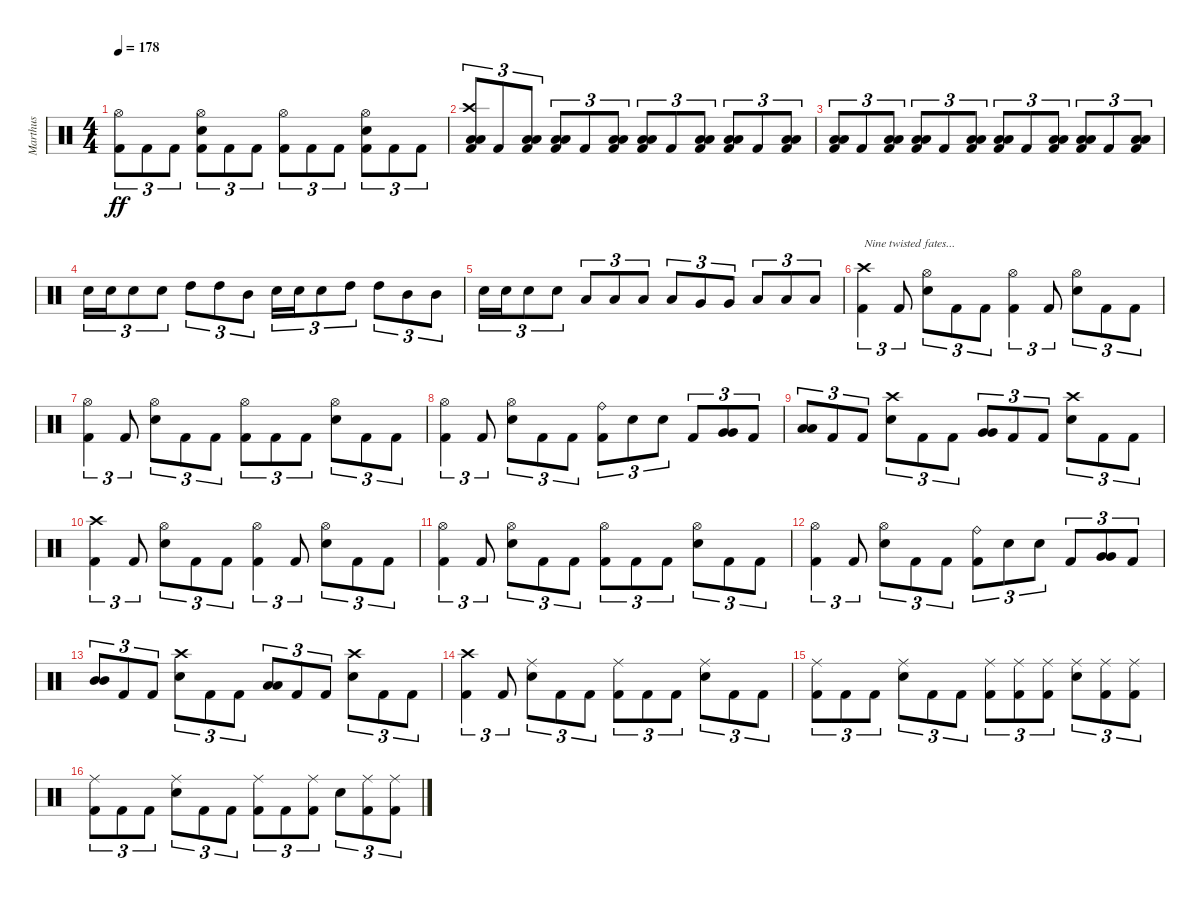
\track ("Marthus" "Marthus") {instrument percussion}
\staff {score}
\articulation defaults
\ts (4 4)
\tempo 178
\clef neutral
\ks c
("Hi-Hat (open)" "Kick (hit) 2").8{tu (3 2) dy ff} "Kick (hit) 2".8{tu (3 2)} "Kick (hit) 2".8{tu (3 2)} ("Hi-Hat (open)" "Electric Snare (hit)" "Kick (hit) 2").8{tu (3 2)} "Kick (hit) 2".8{tu (3 2)} "Kick (hit) 2".8{tu (3 2)} ("Hi-Hat (open)" "Kick (hit) 2").8{tu (3 2)} "Kick (hit) 2".8{tu (3 2)} "Kick (hit) 2".8{tu (3 2)} ("Hi-Hat (open)" "Electric Snare (hit)" "Kick (hit) 2").8{tu (3 2)} "Kick (hit) 2".8{tu (3 2)} "Kick (hit) 2".8{tu (3 2)} |
("Crash high (hit)" "Low Tom (hit)" "Low Tom (hit)" "Kick (hit) 2").8{tu (3 2)} "Kick (hit) 2".8{tu (3 2)} ("Low Floor Tom (hit)" "Low Floor Tom (hit)" "Kick (hit) 2").8{tu (3 2)} ("Low Floor Tom (hit)" "Low Floor Tom (hit)" "Kick (hit) 2").8{tu (3 2)} "Kick (hit) 2".8{tu (3 2)} ("Low Tom (hit)" "Low Tom (hit)" "Kick (hit) 2").8{tu (3 2)} ("Low Tom (hit)" "Low Tom (hit)" "Kick (hit) 2").8{tu (3 2)} "Kick (hit) 2".8{tu (3 2)} ("Low Floor Tom (hit)" "Low Floor Tom (hit)" "Kick (hit) 2").8{tu (3 2)} ("Low Floor Tom (hit)" "Low Floor Tom (hit)" "Kick (hit) 2").8{tu (3 2)} "Kick (hit) 2".8{tu (3 2)} ("Low Tom (hit)" "Low Tom (hit)" "Kick (hit) 2").8{tu (3 2)} |
("Low Tom (hit)" "Low Tom (hit)" "Kick (hit) 2").8{tu (3 2)} "Kick (hit) 2".8{tu (3 2)} ("Low Floor Tom (hit)" "Low Floor Tom (hit)" "Kick (hit) 2").8{tu (3 2)} ("Low Floor Tom (hit)" "Low Floor Tom (hit)" "Kick (hit) 2").8{tu (3 2)} "Kick (hit) 2".8{tu (3 2)} ("Low Tom (hit)" "Low Tom (hit)" "Kick (hit) 2").8{tu (3 2)} ("Low Tom (hit)" "Low Tom (hit)" "Kick (hit) 2").8{tu (3 2)} "Kick (hit) 2".8{tu (3 2)} ("Low Floor Tom (hit)" "Low Floor Tom (hit)" "Kick (hit) 2").8{tu (3 2)} ("Low Floor Tom (hit)" "Low Floor Tom (hit)" "Kick (hit) 2").8{tu (3 2)} "Kick (hit) 2".8{tu (3 2)} ("Low Tom (hit)" "Low Tom (hit)" "Kick (hit) 2").8{tu (3 2)} |
"Electric Snare (hit)".16{tu (3 2)} "Electric Snare (hit)".16{tu (3 2)} "Electric Snare (hit)".8{tu (3 2)} "Electric Snare (hit)".8{tu (3 2)} "High Tom (hit)".8{tu (3 2)} "High Tom (hit)".8{tu (3 2)} "Mid Tom (hit)".8{tu (3 2)} "Electric Snare (hit)".16{tu (3 2)} "Electric Snare (hit)".16{tu (3 2)} "Electric Snare (hit)".8{tu (3 2)} "High Tom (hit)".8{tu (3 2)} "High Tom (hit)".8{tu (3 2)} "Mid Tom (hit)".8{tu (3 2)} "Mid Tom (hit)".8{tu (3 2)} |
"Electric Snare (hit)".16{tu (3 2)} "Electric Snare (hit)".16{tu (3 2)} "Electric Snare (hit)".8{tu (3 2)} "Electric Snare (hit)".8{tu (3 2)} "Low Tom (hit)".8{tu (3 2)} "Low Tom (hit)".8{tu (3 2)} "Low Tom (hit)".8{tu (3 2)} "Low Tom (hit)".8{tu (3 2)} "Very Low Tom (hit)".8{tu (3 2)} "Very Low Tom (hit)".8{tu (3 2)} "Low Floor Tom (hit)".8{tu (3 2)} "Low Floor Tom (hit)".8{tu (3 2)} "Low Floor Tom (hit)".8{tu (3 2)} |
("Crash high (hit)" "Kick (hit) 2").4{tu (3 2) txt "Nine twisted fates..."} "Kick (hit) 2".8{tu (3 2)} ("Hi-Hat (open)" "Electric Snare (hit)").8{tu (3 2)} "Kick (hit) 2".8{tu (3 2)} "Kick (hit) 2".8{tu (3 2)} ("Hi-Hat (open)" "Kick (hit) 2").4{tu (3 2)} "Kick (hit) 2".8{tu (3 2)} ("Hi-Hat (open)" "Electric Snare (hit)").8{tu (3 2)} "Kick (hit) 2".8{tu (3 2)} "Kick (hit) 2".8{tu (3 2)} |
("Hi-Hat (open)" "Kick (hit) 2").4{tu (3 2)} "Kick (hit) 2".8{tu (3 2)} ("Hi-Hat (open)" "Electric Snare (hit)").8{tu (3 2)} "Kick (hit) 2".8{tu (3 2)} "Kick (hit) 2".8{tu (3 2)} ("Hi-Hat (open)" "Kick (hit) 2").8{tu (3 2)} "Kick (hit) 2".8{tu (3 2)} "Kick (hit) 2".8{tu (3 2)} ("Hi-Hat (open)" "Electric Snare (hit)").8{tu (3 2)} "Kick (hit) 2".8{tu (3 2)} "Kick (hit) 2".8{tu (3 2)} |
("Hi-Hat (open)" "Kick (hit) 2").4{tu (3 2)} "Kick (hit) 2".8{tu (3 2)} ("Hi-Hat (open)" "Electric Snare (hit)").8{tu (3 2)} "Kick (hit) 2".8{tu (3 2)} "Kick (hit) 2".8{tu (3 2)} ("Ride (bell)" "Kick (hit) 2").8{tu (3 2)} "Electric Snare (hit)".8{tu (3 2)} "Electric Snare (hit)".8{tu (3 2)} "Kick (hit) 2".8{tu (3 2)} ("Very Low Tom (hit)" "Very Low Tom (hit)").8{tu (3 2)} "Kick (hit) 2".8{tu (3 2)} |
("Low Tom (hit)" "Low Tom (hit)").8{tu (3 2)} "Kick (hit) 2".8{tu (3 2)} "Kick (hit) 2".8{tu (3 2)} ("Crash high (hit)" "Electric Snare (hit)").8{tu (3 2)} "Kick (hit) 2".8{tu (3 2)} "Kick (hit) 2".8{tu (3 2)} ("Very Low Tom (hit)" "Very Low Tom (hit)").8{tu (3 2)} "Kick (hit) 2".8{tu (3 2)} "Kick (hit) 2".8{tu (3 2)} ("Crash high (hit)" "Electric Snare (hit)").8{tu (3 2)} "Kick (hit) 2".8{tu (3 2)} "Kick (hit) 2".8{tu (3 2)} |
("Crash high (hit)" "Kick (hit) 2").4{tu (3 2)} "Kick (hit) 2".8{tu (3 2)} ("Hi-Hat (open)" "Electric Snare (hit)").8{tu (3 2)} "Kick (hit) 2".8{tu (3 2)} "Kick (hit) 2".8{tu (3 2)} ("Hi-Hat (open)" "Kick (hit) 2").4{tu (3 2)} "Kick (hit) 2".8{tu (3 2)} ("Hi-Hat (open)" "Electric Snare (hit)").8{tu (3 2)} "Kick (hit) 2".8{tu (3 2)} "Kick (hit) 2".8{tu (3 2)} |
("Hi-Hat (open)" "Kick (hit) 2").4{tu (3 2)} "Kick (hit) 2".8{tu (3 2)} ("Hi-Hat (open)" "Electric Snare (hit)").8{tu (3 2)} "Kick (hit) 2".8{tu (3 2)} "Kick (hit) 2".8{tu (3 2)} ("Hi-Hat (open)" "Kick (hit) 2").8{tu (3 2)} "Kick (hit) 2".8{tu (3 2)} "Kick (hit) 2".8{tu (3 2)} ("Hi-Hat (open)" "Electric Snare (hit)").8{tu (3 2)} "Kick (hit) 2".8{tu (3 2)} "Kick (hit) 2".8{tu (3 2)} |
("Hi-Hat (open)" "Kick (hit) 2").4{tu (3 2)} "Kick (hit) 2".8{tu (3 2)} ("Hi-Hat (open)" "Electric Snare (hit)").8{tu (3 2)} "Kick (hit) 2".8{tu (3 2)} "Kick (hit) 2".8{tu (3 2)} ("Ride (bell)" "Kick (hit) 2").8{tu (3 2)} "Electric Snare (hit)".8{tu (3 2)} "Electric Snare (hit)".8{tu (3 2)} "Kick (hit) 2".8{tu (3 2)} ("Very Low Tom (hit)" "Very Low Tom (hit)").8{tu (3 2)} "Kick (hit) 2".8{tu (3 2)} |
("Mid Tom (hit)" "Mid Tom (hit)").8{tu (3 2)} "Kick (hit) 2".8{tu (3 2)} "Kick (hit) 2".8{tu (3 2)} ("Crash high (hit)" "Electric Snare (hit)").8{tu (3 2)} "Kick (hit) 2".8{tu (3 2)} "Kick (hit) 2".8{tu (3 2)} ("Low Tom (hit)" "Low Tom (hit)").8{tu (3 2)} "Kick (hit) 2".8{tu (3 2)} "Kick (hit) 2".8{tu (3 2)} ("Crash high (hit)" "Electric Snare (hit)").8{tu (3 2)} "Kick (hit) 2".8{tu (3 2)} "Kick (hit) 2".8{tu (3 2)} |
("Crash high (hit)" "Kick (hit) 2").4{tu (3 2)} "Kick (hit) 2".8{tu (3 2)} ("Ride (middle)" "Electric Snare (hit)").8{tu (3 2)} "Kick (hit) 2".8{tu (3 2)} "Kick (hit) 2".8{tu (3 2)} ("Ride (middle)" "Kick (hit) 2").8{tu (3 2)} "Kick (hit) 2".8{tu (3 2)} "Kick (hit) 2".8{tu (3 2)} ("Ride (middle)" "Electric Snare (hit)").8{tu (3 2)} "Kick (hit) 2".8{tu (3 2)} "Kick (hit) 2".8{tu (3 2)} |
("Ride (middle)" "Kick (hit) 2").8{tu (3 2)} "Kick (hit) 2".8{tu (3 2)} "Kick (hit) 2".8{tu (3 2)} ("Ride (middle)" "Electric Snare (hit)").8{tu (3 2)} "Kick (hit) 2".8{tu (3 2)} "Kick (hit) 2".8{tu (3 2)} ("Ride (middle)" "Kick (hit) 2").8{tu (3 2)} ("Ride (middle)" "Kick (hit) 2").8{tu (3 2)} ("Ride (middle)" "Kick (hit) 2").8{tu (3 2)} ("Ride (middle)" "Electric Snare (hit)").8{tu (3 2)} ("Ride (middle)" "Kick (hit) 2").8{tu (3 2)} ("Ride (middle)" "Kick (hit) 2").8{tu (3 2)} |
("Ride (middle)" "Kick (hit) 2").8{tu (3 2)} "Kick (hit) 2".8{tu (3 2)} "Kick (hit) 2".8{tu (3 2)} ("Ride (middle)" "Electric Snare (hit)").8{tu (3 2)} "Kick (hit) 2".8{tu (3 2)} "Kick (hit) 2".8{tu (3 2)} ("Ride (middle)" "Kick (hit) 2").8{tu (3 2)} "Kick (hit) 2".8{tu (3 2)} ("Ride (middle)" "Kick (hit) 2").8{tu (3 2)} "Electric Snare (hit)".8{tu (3 2)} ("Ride (middle)" "Kick (hit) 2").8{tu (3 2)} ("Ride (middle)" "Kick (hit) 2").8{tu (3 2)}
